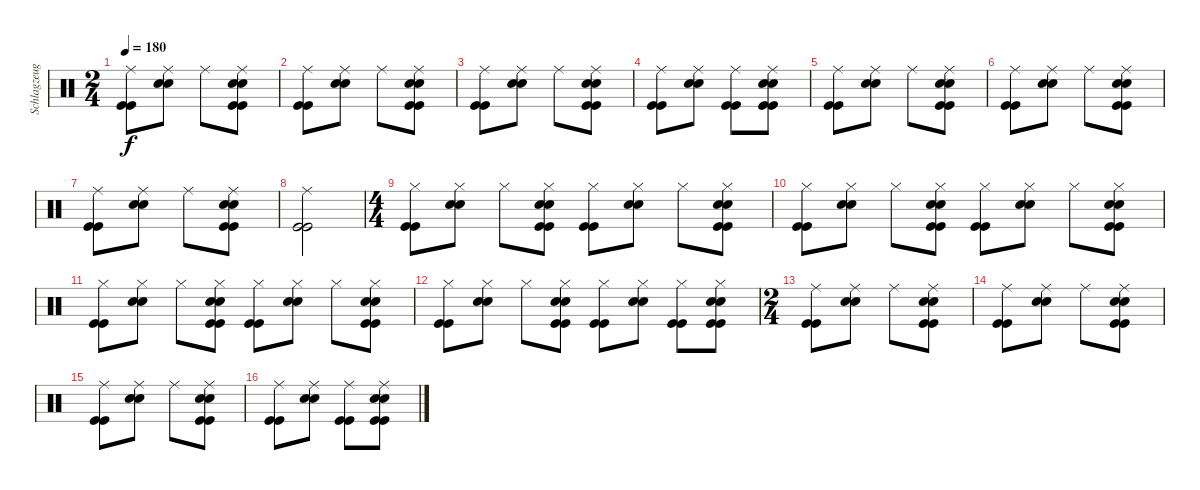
\track ("Schlagzeug" "Schlagzeug") {instrument percussion}
\staff {score}
\articulation defaults
\ts (2 4)
\tempo 180
\clef neutral
\ks c
("Ride (middle)" "Kick (hit)" "Kick (hit)").8{dy f} ("Ride (middle)" "Electric Snare (hit)" "Electric Snare (hit)").8 "Ride (middle)".8 ("Ride (middle)" "Electric Snare (hit)" "Electric Snare (hit)" "Kick (hit)" "Kick (hit)").8 |
("Ride (middle)" "Kick (hit)" "Kick (hit)").8 ("Ride (middle)" "Electric Snare (hit)" "Electric Snare (hit)").8 "Ride (middle)".8 ("Ride (middle)" "Electric Snare (hit)" "Electric Snare (hit)" "Kick (hit)" "Kick (hit)").8 |
("Ride (middle)" "Kick (hit)" "Kick (hit)").8 ("Ride (middle)" "Electric Snare (hit)" "Electric Snare (hit)").8 "Ride (middle)".8 ("Ride (middle)" "Electric Snare (hit)" "Electric Snare (hit)" "Kick (hit)" "Kick (hit)").8 |
("Ride (middle)" "Kick (hit)" "Kick (hit)").8 ("Ride (middle)" "Electric Snare (hit)" "Electric Snare (hit)").8 ("Ride (middle)" "Kick (hit)" "Kick (hit)").8 ("Ride (middle)" "Electric Snare (hit)" "Electric Snare (hit)" "Kick (hit)" "Kick (hit)").8 |
("Ride (middle)" "Kick (hit)" "Kick (hit)").8 ("Ride (middle)" "Electric Snare (hit)" "Electric Snare (hit)").8 "Ride (middle)".8 ("Ride (middle)" "Electric Snare (hit)" "Electric Snare (hit)" "Kick (hit)" "Kick (hit)").8 |
("Ride (middle)" "Kick (hit)" "Kick (hit)").8 ("Ride (middle)" "Electric Snare (hit)" "Electric Snare (hit)").8 "Ride (middle)".8 ("Ride (middle)" "Electric Snare (hit)" "Electric Snare (hit)" "Kick (hit)" "Kick (hit)").8 |
("Ride (middle)" "Kick (hit)" "Kick (hit)").8 ("Ride (middle)" "Electric Snare (hit)" "Electric Snare (hit)").8 "Ride (middle)".8 ("Ride (middle)" "Electric Snare (hit)" "Electric Snare (hit)" "Kick (hit)" "Kick (hit)").8 |
("Ride (middle)" "Kick (hit)" "Kick (hit)").2 |
\ts (4 4)
("Hi-Hat (closed)" "Kick (hit)" "Kick (hit)").8 ("Hi-Hat (closed)" "Electric Snare (hit)" "Electric Snare (hit)").8 "Hi-Hat (closed)".8 ("Hi-Hat (closed)" "Electric Snare (hit)" "Electric Snare (hit)" "Kick (hit)" "Kick (hit)").8 ("Hi-Hat (closed)" "Kick (hit)" "Kick (hit)").8 ("Hi-Hat (closed)" "Electric Snare (hit)" "Electric Snare (hit)").8 "Hi-Hat (closed)".8 ("Hi-Hat (closed)" "Electric Snare (hit)" "Electric Snare (hit)" "Kick (hit)" "Kick (hit)").8 |
("Hi-Hat (closed)" "Kick (hit)" "Kick (hit)").8 ("Hi-Hat (closed)" "Electric Snare (hit)" "Electric Snare (hit)").8 "Hi-Hat (closed)".8 ("Hi-Hat (closed)" "Electric Snare (hit)" "Electric Snare (hit)" "Kick (hit)" "Kick (hit)").8 ("Hi-Hat (closed)" "Kick (hit)" "Kick (hit)").8 ("Hi-Hat (closed)" "Electric Snare (hit)" "Electric Snare (hit)").8 "Hi-Hat (closed)".8 ("Hi-Hat (closed)" "Electric Snare (hit)" "Electric Snare (hit)" "Kick (hit)" "Kick (hit)").8 |
("Hi-Hat (closed)" "Kick (hit)" "Kick (hit)").8 ("Hi-Hat (closed)" "Electric Snare (hit)" "Electric Snare (hit)").8 "Hi-Hat (closed)".8 ("Hi-Hat (closed)" "Electric Snare (hit)" "Electric Snare (hit)" "Kick (hit)" "Kick (hit)").8 ("Hi-Hat (closed)" "Kick (hit)" "Kick (hit)").8 ("Hi-Hat (closed)" "Electric Snare (hit)" "Electric Snare (hit)").8 "Hi-Hat (closed)".8 ("Hi-Hat (closed)" "Electric Snare (hit)" "Electric Snare (hit)" "Kick (hit)" "Kick (hit)").8 |
("Hi-Hat (closed)" "Kick (hit)" "Kick (hit)").8 ("Hi-Hat (closed)" "Electric Snare (hit)" "Electric Snare (hit)").8 "Hi-Hat (closed)".8 ("Hi-Hat (closed)" "Electric Snare (hit)" "Electric Snare (hit)" "Kick (hit)" "Kick (hit)").8 ("Hi-Hat (closed)" "Kick (hit)" "Kick (hit)").8 ("Hi-Hat (closed)" "Electric Snare (hit)" "Electric Snare (hit)").8 ("Hi-Hat (closed)" "Kick (hit)" "Kick (hit)").8 ("Hi-Hat (closed)" "Electric Snare (hit)" "Electric Snare (hit)" "Kick (hit)" "Kick (hit)").8 |
\ts (2 4)
("Ride (middle)" "Kick (hit)" "Kick (hit)").8 ("Ride (middle)" "Electric Snare (hit)" "Electric Snare (hit)").8 "Ride (middle)".8 ("Ride (middle)" "Electric Snare (hit)" "Electric Snare (hit)" "Kick (hit)" "Kick (hit)").8 |
("Ride (middle)" "Kick (hit)" "Kick (hit)").8 ("Ride (middle)" "Electric Snare (hit)" "Electric Snare (hit)").8 "Ride (middle)".8 ("Ride (middle)" "Electric Snare (hit)" "Electric Snare (hit)" "Kick (hit)" "Kick (hit)").8 |
("Ride (middle)" "Kick (hit)" "Kick (hit)").8 ("Ride (middle)" "Electric Snare (hit)" "Electric Snare (hit)").8 "Ride (middle)".8 ("Ride (middle)" "Electric Snare (hit)" "Electric Snare (hit)" "Kick (hit)" "Kick (hit)").8 |
("Ride (middle)" "Kick (hit)" "Kick (hit)").8 ("Ride (middle)" "Electric Snare (hit)" "Electric Snare (hit)").8 ("Ride (middle)" "Kick (hit)" "Kick (hit)").8 ("Ride (middle)" "Electric Snare (hit)" "Electric Snare (hit)" "Kick (hit)" "Kick (hit)").8
